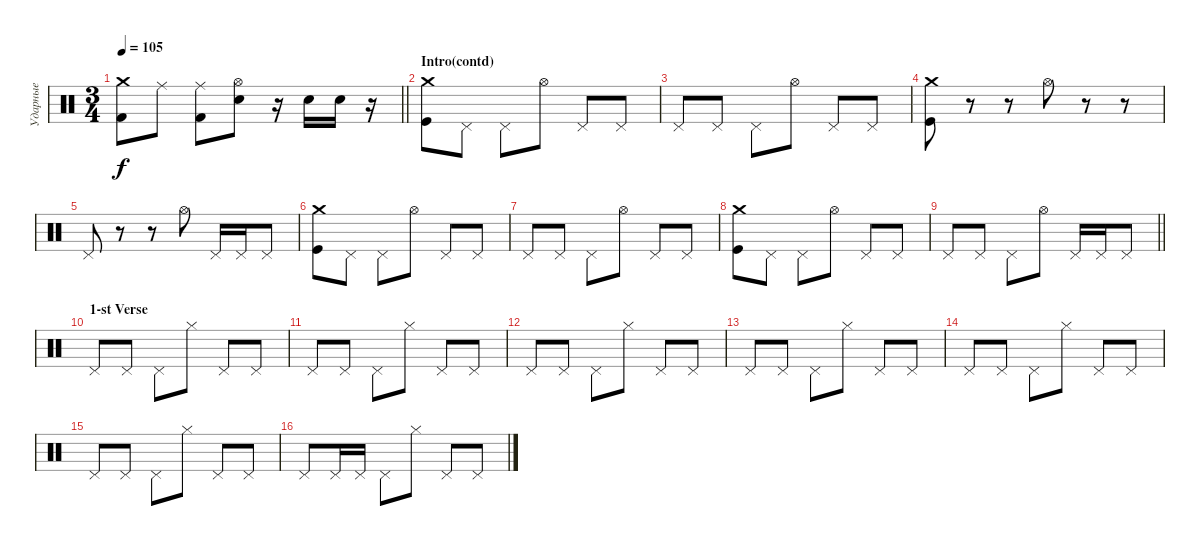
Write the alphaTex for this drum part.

\track ("Ударные" "Ударные") {instrument percussion}
\staff {score}
\articulation defaults
\ts (3 4)
\tempo 105
\clef neutral
\barLineRight lightlight
\ks c
("Crash medium (hit)" "Kick (hit) 2").8{dy f} "Ride (middle)".8 ("Ride (middle)" "Kick (hit) 2").8 ("Hi-Hat (open)" "Electric Snare (hit)").8 r.16 "Electric Snare (hit)".16 "Electric Snare (hit)".16 r.16 |
\section ("" "Intro(contd)")
("Crash medium (hit)" "Kick (hit)").8 "Pedal Hi-Hat (hit)".8 "Pedal Hi-Hat (hit)".8 "Hi-Hat (open)".8 "Pedal Hi-Hat (hit)".8 "Pedal Hi-Hat (hit)".8 |
"Pedal Hi-Hat (hit)".8 "Pedal Hi-Hat (hit)".8 "Pedal Hi-Hat (hit)".8 "Hi-Hat (open)".8 "Pedal Hi-Hat (hit)".8 "Pedal Hi-Hat (hit)".8 |
("Crash medium (hit)" "Kick (hit)").8 r.8 r.8 "Hi-Hat (open)".8 r.8 r.8 |
"Pedal Hi-Hat (hit)".8 r.8 r.8 "Hi-Hat (open)".8 "Pedal Hi-Hat (hit)".16 "Pedal Hi-Hat (hit)".16 "Pedal Hi-Hat (hit)".8 |
("Crash medium (hit)" "Kick (hit)").8 "Pedal Hi-Hat (hit)".8 "Pedal Hi-Hat (hit)".8 "Hi-Hat (open)".8 "Pedal Hi-Hat (hit)".8 "Pedal Hi-Hat (hit)".8 |
"Pedal Hi-Hat (hit)".8 "Pedal Hi-Hat (hit)".8 "Pedal Hi-Hat (hit)".8 "Hi-Hat (open)".8 "Pedal Hi-Hat (hit)".8 "Pedal Hi-Hat (hit)".8 |
("Crash medium (hit)" "Kick (hit)").8 "Pedal Hi-Hat (hit)".8 "Pedal Hi-Hat (hit)".8 "Hi-Hat (open)".8 "Pedal Hi-Hat (hit)".8 "Pedal Hi-Hat (hit)".8 |
\barLineRight lightlight "Pedal Hi-Hat (hit)".8 "Pedal Hi-Hat (hit)".8 "Pedal Hi-Hat (hit)".8 "Hi-Hat (open)".8 "Pedal Hi-Hat (hit)".16 "Pedal Hi-Hat (hit)".16 "Pedal Hi-Hat (hit)".8
|
\section ("" "1-st Verse")
"Pedal Hi-Hat (hit)".8 "Pedal Hi-Hat (hit)".8 "Pedal Hi-Hat (hit)".8 "Hi-Hat (closed)".8 "Pedal Hi-Hat (hit)".8 "Pedal Hi-Hat (hit)".8 |
"Pedal Hi-Hat (hit)".8 "Pedal Hi-Hat (hit)".8 "Pedal Hi-Hat (hit)".8 "Hi-Hat (closed)".8 "Pedal Hi-Hat (hit)".8 "Pedal Hi-Hat (hit)".8 |
"Pedal Hi-Hat (hit)".8 "Pedal Hi-Hat (hit)".8 "Pedal Hi-Hat (hit)".8 "Hi-Hat (closed)".8 "Pedal Hi-Hat (hit)".8 "Pedal Hi-Hat (hit)".8 |
"Pedal Hi-Hat (hit)".8 "Pedal Hi-Hat (hit)".8 "Pedal Hi-Hat (hit)".8 "Hi-Hat (closed)".8 "Pedal Hi-Hat (hit)".8 "Pedal Hi-Hat (hit)".8 |
"Pedal Hi-Hat (hit)".8 "Pedal Hi-Hat (hit)".8 "Pedal Hi-Hat (hit)".8 "Hi-Hat (closed)".8 "Pedal Hi-Hat (hit)".8 "Pedal Hi-Hat (hit)".8 |
"Pedal Hi-Hat (hit)".8 "Pedal Hi-Hat (hit)".8 "Pedal Hi-Hat (hit)".8 "Hi-Hat (closed)".8 "Pedal Hi-Hat (hit)".8 "Pedal Hi-Hat (hit)".8 |
"Pedal Hi-Hat (hit)".8 "Pedal Hi-Hat (hit)".16 "Pedal Hi-Hat (hit)".16 "Pedal Hi-Hat (hit)".8 "Hi-Hat (closed)".8 "Pedal Hi-Hat (hit)".8 "Pedal Hi-Hat (hit)".8
